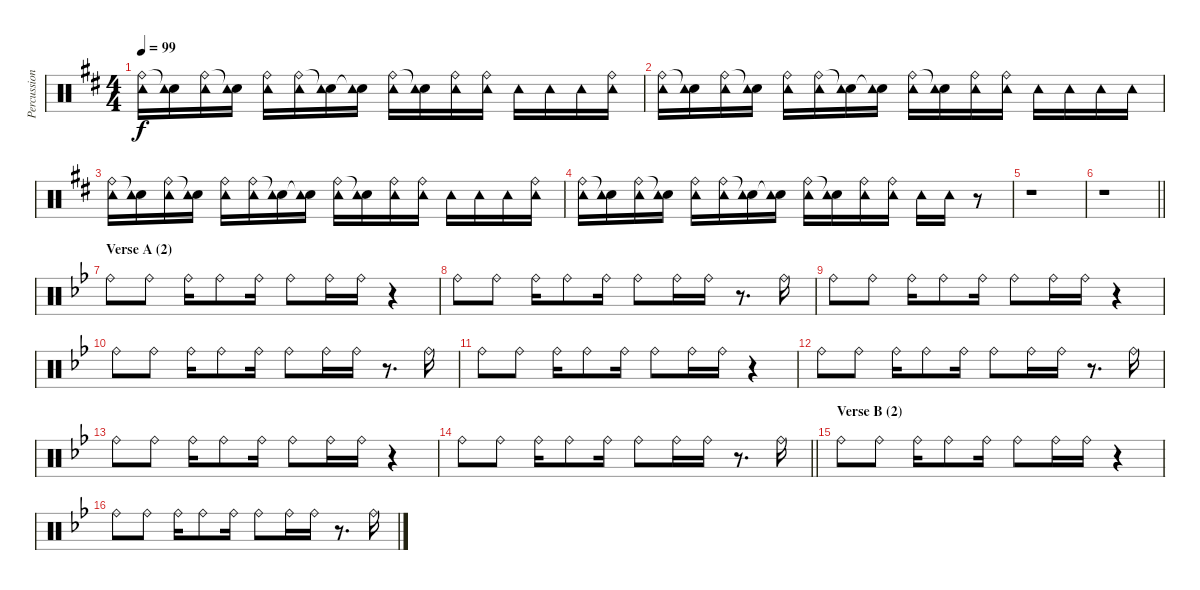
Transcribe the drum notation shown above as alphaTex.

\track ("Percussion" "Percussion") {instrument percussion}
\staff {score}
\articulation defaults
\ts (4 4)
\tempo 99
\clef neutral
\ks d
("Ride (bell)" "Tambourine (hit)").16{dy f} ("Snare (hit)"{t} "Tambourine (hit)").16 ("Ride (bell)" "Tambourine (hit)").16 ("Snare (hit)"{t} "Tambourine (hit)").16 ("Ride (bell)" "Tambourine (hit)").16 ("Ride (bell)" "Tambourine (hit)").16 ("Snare (hit)"{t} "Tambourine (hit)").16 ("Snare (hit)"{t} "Tambourine (hit)").16 ("Ride (bell)" "Tambourine (hit)").16 ("Snare (hit)"{t} "Tambourine (hit)").16 ("Ride (bell)" "Tambourine (hit)").16 ("Ride (bell)" "Tambourine (hit)").16 "Tambourine (hit)".16 "Tambourine (hit)".16 "Tambourine (hit)".16 ("Ride (bell)" "Tambourine (hit)").16 |
("Ride (bell)" "Tambourine (hit)").16 ("Snare (hit)"{t} "Tambourine (hit)").16 ("Ride (bell)" "Tambourine (hit)").16 ("Snare (hit)"{t} "Tambourine (hit)").16 ("Ride (bell)" "Tambourine (hit)").16 ("Ride (bell)" "Tambourine (hit)").16 ("Snare (hit)"{t} "Tambourine (hit)").16 ("Snare (hit)"{t} "Tambourine (hit)").16 ("Ride (bell)" "Tambourine (hit)").16 ("Snare (hit)"{t} "Tambourine (hit)").16 ("Ride (bell)" "Tambourine (hit)").16 ("Ride (bell)" "Tambourine (hit)").16 "Tambourine (hit)".16 "Tambourine (hit)".16 "Tambourine (hit)".16 "Tambourine (hit)".16 |
("Ride (bell)" "Tambourine (hit)").16 ("Snare (hit)"{t} "Tambourine (hit)").16 ("Ride (bell)" "Tambourine (hit)").16 ("Snare (hit)"{t} "Tambourine (hit)").16 ("Ride (bell)" "Tambourine (hit)").16 ("Ride (bell)" "Tambourine (hit)").16 ("Snare (hit)"{t} "Tambourine (hit)").16 ("Snare (hit)"{t} "Tambourine (hit)").16 ("Ride (bell)" "Tambourine (hit)").16 ("Snare (hit)"{t} "Tambourine (hit)").16 ("Ride (bell)" "Tambourine (hit)").16 ("Ride (bell)" "Tambourine (hit)").16 "Tambourine (hit)".16 "Tambourine (hit)".16 "Tambourine (hit)".16 ("Ride (bell)" "Tambourine (hit)").16 |
("Ride (bell)" "Tambourine (hit)").16 ("Snare (hit)"{t} "Tambourine (hit)").16 ("Ride (bell)" "Tambourine (hit)").16 ("Snare (hit)"{t} "Tambourine (hit)").16 ("Ride (bell)" "Tambourine (hit)").16 ("Ride (bell)" "Tambourine (hit)").16 ("Snare (hit)"{t} "Tambourine (hit)").16 ("Snare (hit)"{t} "Tambourine (hit)").16 ("Ride (bell)" "Tambourine (hit)").16 ("Snare (hit)"{t} "Tambourine (hit)").16 ("Ride (bell)" "Tambourine (hit)").16 ("Ride (bell)" "Tambourine (hit)").16 "Tambourine (hit)".16 "Tambourine (hit)".16 r.8 |
r.1 |
\barLineRight lightlight
r.1 |
\section ("" "Verse A (2)")
\ks gminor "Ride (bell)".8 "Ride (bell)".8 "Ride (bell)".16 "Ride (bell)".8 "Ride (bell)".16 "Ride (bell)".8 "Ride (bell)".16 "Ride (bell)".16
r.4 |
"Ride (bell)".8 "Ride (bell)".8 "Ride (bell)".16 "Ride (bell)".8 "Ride (bell)".16 "Ride (bell)".8 "Ride (bell)".16 "Ride (bell)".16 r.8{d} "Ride (bell)".16 |
"Ride (bell)".8 "Ride (bell)".8 "Ride (bell)".16 "Ride (bell)".8 "Ride (bell)".16 "Ride (bell)".8 "Ride (bell)".16 "Ride (bell)".16 r.4 |
"Ride (bell)".8 "Ride (bell)".8 "Ride (bell)".16 "Ride (bell)".8 "Ride (bell)".16 "Ride (bell)".8 "Ride (bell)".16 "Ride (bell)".16 r.8{d} "Ride (bell)".16 |
"Ride (bell)".8 "Ride (bell)".8 "Ride (bell)".16 "Ride (bell)".8 "Ride (bell)".16 "Ride (bell)".8 "Ride (bell)".16 "Ride (bell)".16 r.4 |
"Ride (bell)".8 "Ride (bell)".8 "Ride (bell)".16 "Ride (bell)".8 "Ride (bell)".16 "Ride (bell)".8 "Ride (bell)".16 "Ride (bell)".16 r.8{d} "Ride (bell)".16 |
"Ride (bell)".8 "Ride (bell)".8 "Ride (bell)".16 "Ride (bell)".8 "Ride (bell)".16 "Ride (bell)".8 "Ride (bell)".16 "Ride (bell)".16 r.4 |
\barLineRight lightlight "Ride (bell)".8 "Ride (bell)".8 "Ride (bell)".16 "Ride (bell)".8 "Ride (bell)".16 "Ride (bell)".8 "Ride (bell)".16 "Ride (bell)".16
r.8{d} "Ride (bell)".16 |
\section ("" "Verse B (2)")
"Ride (bell)".8 "Ride (bell)".8 "Ride (bell)".16 "Ride (bell)".8 "Ride (bell)".16 "Ride (bell)".8 "Ride (bell)".16 "Ride (bell)".16 r.4 |
"Ride (bell)".8 "Ride (bell)".8 "Ride (bell)".16 "Ride (bell)".8 "Ride (bell)".16 "Ride (bell)".8 "Ride (bell)".16 "Ride (bell)".16 r.8{d} "Ride (bell)".16
